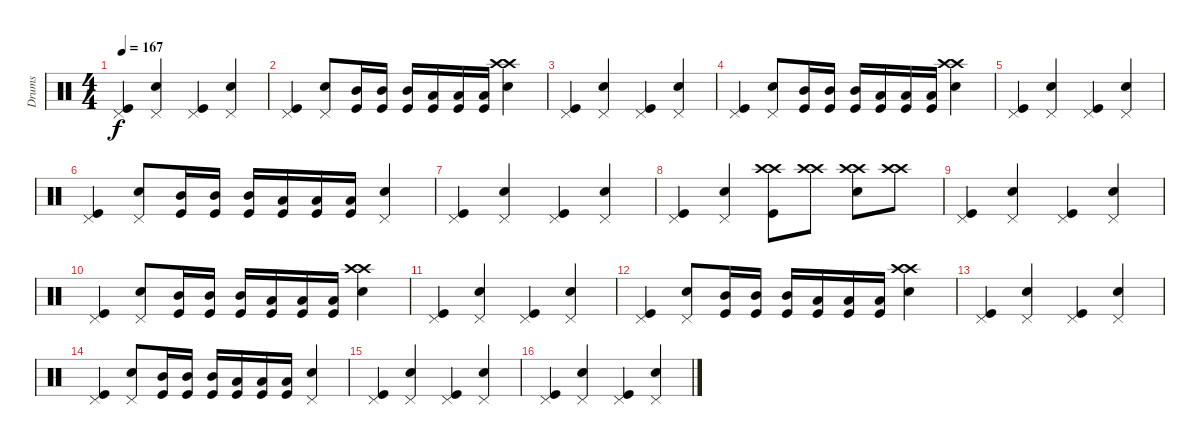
\track ("Drums" "Drums") {instrument percussion}
\staff {score}
\articulation defaults
\ts (4 4)
\tempo 167
\clef neutral
\ks c
("Pedal Hi-Hat (hit)" "Kick (hit)").4{dy f} ("Pedal Hi-Hat (hit)" "Snare (hit) 2").4 ("Pedal Hi-Hat (hit)" "Kick (hit)").4 ("Pedal Hi-Hat (hit)" "Snare (hit) 2").4 |
("Pedal Hi-Hat (hit)" "Kick (hit)").4 ("Pedal Hi-Hat (hit)" "Snare (hit) 2").8 ("Mid Tom (hit)" "Kick (hit)").16 ("Mid Tom (hit)" "Kick (hit)").16 ("Mid Tom (hit)" "Kick (hit)").16 ("Low Tom (hit)" "Kick (hit)").16 ("Low Tom (hit)" "Kick (hit)").16 ("Low Tom (hit)" "Kick (hit)").16 ("Crash high (hit)" "Crash high (hit)" "Snare (hit) 2").4 |
("Pedal Hi-Hat (hit)" "Kick (hit)").4 ("Pedal Hi-Hat (hit)" "Snare (hit) 2").4 ("Pedal Hi-Hat (hit)" "Kick (hit)").4 ("Pedal Hi-Hat (hit)" "Snare (hit) 2").4 |
("Pedal Hi-Hat (hit)" "Kick (hit)").4 ("Pedal Hi-Hat (hit)" "Snare (hit) 2").8 ("Mid Tom (hit)" "Kick (hit)").16 ("Mid Tom (hit)" "Kick (hit)").16 ("Mid Tom (hit)" "Kick (hit)").16 ("Low Tom (hit)" "Kick (hit)").16 ("Low Tom (hit)" "Kick (hit)").16 ("Low Tom (hit)" "Kick (hit)").16 ("Crash high (hit)" "Crash high (hit)" "Snare (hit) 2").4 |
("Pedal Hi-Hat (hit)" "Kick (hit)").4 ("Pedal Hi-Hat (hit)" "Snare (hit) 2").4 ("Pedal Hi-Hat (hit)" "Kick (hit)").4 ("Pedal Hi-Hat (hit)" "Snare (hit) 2").4 |
("Pedal Hi-Hat (hit)" "Kick (hit)").4 ("Pedal Hi-Hat (hit)" "Snare (hit) 2").8 ("Mid Tom (hit)" "Kick (hit)").16 ("Mid Tom (hit)" "Kick (hit)").16 ("Mid Tom (hit)" "Kick (hit)").16 ("Low Tom (hit)" "Kick (hit)").16 ("Low Tom (hit)" "Kick (hit)").16 ("Low Tom (hit)" "Kick (hit)").16 ("Pedal Hi-Hat (hit)" "Snare (hit) 2").4 |
("Pedal Hi-Hat (hit)" "Kick (hit)").4 ("Pedal Hi-Hat (hit)" "Snare (hit) 2").4 ("Pedal Hi-Hat (hit)" "Kick (hit)").4 ("Pedal Hi-Hat (hit)" "Snare (hit) 2").4 |
("Pedal Hi-Hat (hit)" "Kick (hit)").4 ("Pedal Hi-Hat (hit)" "Snare (hit) 2").4 ("Crash high (hit)" "Crash high (hit)" "Kick (hit)").8 ("Crash high (hit)" "Crash high (hit)").8 ("Crash high (hit)" "Crash high (hit)" "Snare (hit) 2").8 ("Crash high (hit)" "Crash high (hit)").8 |
("Pedal Hi-Hat (hit)" "Kick (hit)").4 ("Pedal Hi-Hat (hit)" "Snare (hit) 2").4 ("Pedal Hi-Hat (hit)" "Kick (hit)").4 ("Pedal Hi-Hat (hit)" "Snare (hit) 2").4 |
("Pedal Hi-Hat (hit)" "Kick (hit)").4 ("Pedal Hi-Hat (hit)" "Snare (hit) 2").8 ("Mid Tom (hit)" "Kick (hit)").16 ("Mid Tom (hit)" "Kick (hit)").16 ("Mid Tom (hit)" "Kick (hit)").16 ("Low Tom (hit)" "Kick (hit)").16 ("Low Tom (hit)" "Kick (hit)").16 ("Low Tom (hit)" "Kick (hit)").16 ("Crash high (hit)" "Crash high (hit)" "Snare (hit) 2").4 |
("Pedal Hi-Hat (hit)" "Kick (hit)").4 ("Pedal Hi-Hat (hit)" "Snare (hit) 2").4 ("Pedal Hi-Hat (hit)" "Kick (hit)").4 ("Pedal Hi-Hat (hit)" "Snare (hit) 2").4 |
("Pedal Hi-Hat (hit)" "Kick (hit)").4 ("Pedal Hi-Hat (hit)" "Snare (hit) 2").8 ("Mid Tom (hit)" "Kick (hit)").16 ("Mid Tom (hit)" "Kick (hit)").16 ("Mid Tom (hit)" "Kick (hit)").16 ("Low Tom (hit)" "Kick (hit)").16 ("Low Tom (hit)" "Kick (hit)").16 ("Low Tom (hit)" "Kick (hit)").16 ("Crash high (hit)" "Crash high (hit)" "Snare (hit) 2").4 |
("Pedal Hi-Hat (hit)" "Kick (hit)").4 ("Pedal Hi-Hat (hit)" "Snare (hit) 2").4 ("Pedal Hi-Hat (hit)" "Kick (hit)").4 ("Pedal Hi-Hat (hit)" "Snare (hit) 2").4 |
("Pedal Hi-Hat (hit)" "Kick (hit)").4 ("Pedal Hi-Hat (hit)" "Snare (hit) 2").8 ("Mid Tom (hit)" "Kick (hit)").16 ("Mid Tom (hit)" "Kick (hit)").16 ("Mid Tom (hit)" "Kick (hit)").16 ("Low Tom (hit)" "Kick (hit)").16 ("Low Tom (hit)" "Kick (hit)").16 ("Low Tom (hit)" "Kick (hit)").16 ("Pedal Hi-Hat (hit)" "Snare (hit) 2").4 |
("Pedal Hi-Hat (hit)" "Kick (hit)").4 ("Pedal Hi-Hat (hit)" "Snare (hit) 2").4 ("Pedal Hi-Hat (hit)" "Kick (hit)").4 ("Pedal Hi-Hat (hit)" "Snare (hit) 2").4 |
("Pedal Hi-Hat (hit)" "Kick (hit)").4 ("Pedal Hi-Hat (hit)" "Snare (hit) 2").4 ("Pedal Hi-Hat (hit)" "Kick (hit)").4 ("Pedal Hi-Hat (hit)" "Snare (hit) 2").4
